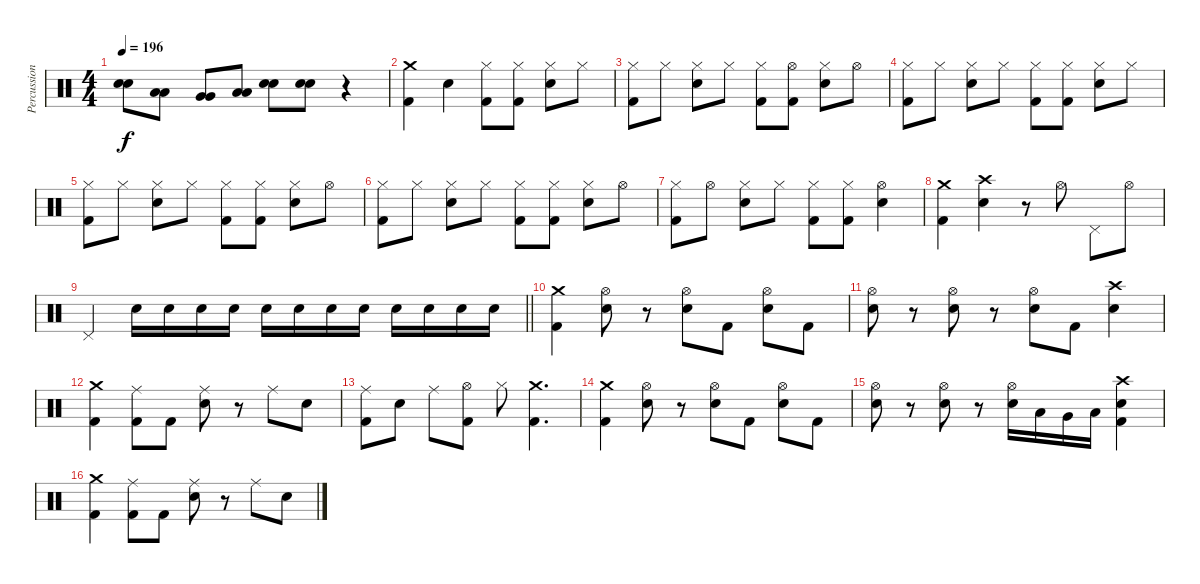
\track ("Percussion" "Percussion") {instrument percussion}
\staff {score}
\articulation defaults
\ts (4 4)
\tempo 196
\clef neutral
\ks c
("Electric Snare (hit)" "Electric Snare (hit)").8{dy f} ("Low Tom (hit)" "Low Tom (hit)").8 ("Very Low Tom (hit)" "Very Low Tom (hit)").8 ("Low Floor Tom (hit)" "Low Floor Tom (hit)").8 ("Electric Snare (hit)" "Electric Snare (hit)").8 ("Electric Snare (hit)" "Electric Snare (hit)").8 r.4 |
("Crash medium (hit)" "Kick (hit) 2").4 "Electric Snare (hit)".4 ("Hi-Hat (closed)" "Kick (hit) 2").8 ("Hi-Hat (closed)" "Kick (hit) 2").8 ("Hi-Hat (closed)" "Electric Snare (hit)").8 "Hi-Hat (closed)".8 |
("Hi-Hat (closed)" "Kick (hit) 2").8 "Hi-Hat (closed)".8 ("Hi-Hat (closed)" "Electric Snare (hit)").8 "Hi-Hat (closed)".8 ("Hi-Hat (closed)" "Kick (hit) 2").8 ("Hi-Hat (open)" "Kick (hit) 2").8 ("Hi-Hat (closed)" "Electric Snare (hit)").8 "Hi-Hat (open)".8 |
("Hi-Hat (closed)" "Kick (hit) 2").8 "Hi-Hat (closed)".8 ("Hi-Hat (closed)" "Electric Snare (hit)").8 "Hi-Hat (closed)".8 ("Hi-Hat (closed)" "Kick (hit) 2").8 ("Hi-Hat (closed)" "Kick (hit) 2").8 ("Hi-Hat (closed)" "Electric Snare (hit)").8 "Hi-Hat (closed)".8 |
("Hi-Hat (closed)" "Kick (hit) 2").8 "Hi-Hat (closed)".8 ("Hi-Hat (closed)" "Electric Snare (hit)").8 "Hi-Hat (closed)".8 ("Hi-Hat (closed)" "Kick (hit) 2").8 ("Hi-Hat (closed)" "Kick (hit) 2").8 ("Hi-Hat (closed)" "Electric Snare (hit)").8 "Hi-Hat (open)".8 |
("Hi-Hat (closed)" "Kick (hit) 2").8 "Hi-Hat (closed)".8 ("Hi-Hat (closed)" "Electric Snare (hit)").8 "Hi-Hat (closed)".8 ("Hi-Hat (closed)" "Kick (hit) 2").8 ("Hi-Hat (closed)" "Kick (hit) 2").8 ("Hi-Hat (closed)" "Electric Snare (hit)").8 "Hi-Hat (open)".8 |
("Hi-Hat (closed)" "Kick (hit) 2").8 "Hi-Hat (open)".8 ("Hi-Hat (closed)" "Electric Snare (hit)").8 "Hi-Hat (closed)".8 ("Hi-Hat (closed)" "Kick (hit) 2").8 ("Hi-Hat (closed)" "Kick (hit) 2").8 ("Hi-Hat (open)" "Electric Snare (hit)").4 |
("Crash medium (hit)" "Kick (hit) 2").4 ("Crash high (hit)" "Electric Snare (hit)").4 r.8 "Hi-Hat (open)".8 "Pedal Hi-Hat (hit)".8 "Hi-Hat (open)".8 |
\barLineRight lightlight "Pedal Hi-Hat (hit)".4 "Electric Snare (hit)".16 "Electric Snare (hit)".16 "Electric Snare (hit)".16 "Electric Snare (hit)".16 "Electric Snare (hit)".16 "Electric Snare (hit)".16 "Electric Snare (hit)".16 "Electric Snare (hit)".16 "Electric Snare (hit)".16 "Electric Snare (hit)".16 "Electric Snare (hit)".16 "Electric Snare (hit)".16
|
("Crash medium (hit)" "Kick (hit) 2").4 ("Hi-Hat (open)" "Electric Snare (hit)").8 r.8 ("Hi-Hat (open)" "Electric Snare (hit)").8 "Kick (hit) 2".8 ("Hi-Hat (open)" "Electric Snare (hit)").8 "Kick (hit) 2".8 |
("Hi-Hat (open)" "Electric Snare (hit)").8 r.8 ("Hi-Hat (open)" "Electric Snare (hit)").8 r.8 ("Hi-Hat (open)" "Electric Snare (hit)").8 "Kick (hit) 2".8 ("Crash high (hit)" "Electric Snare (hit)").4 |
("Crash medium (hit)" "Kick (hit) 2").4 ("Ride (middle)" "Kick (hit) 2").8 "Kick (hit) 2".8 ("Ride (middle)" "Electric Snare (hit)").8 r.8 "Ride (middle)".8 "Electric Snare (hit)".8 |
("Ride (middle)" "Kick (hit) 2").8 "Electric Snare (hit)".8 "Ride (middle)".8 ("Hi-Hat (open)" "Kick (hit) 2").8 "Hi-Hat (closed)".8 ("Crash medium (hit)" "Kick (hit) 2").4{d} |
("Crash medium (hit)" "Kick (hit) 2").4 ("Hi-Hat (open)" "Electric Snare (hit)").8 r.8 ("Hi-Hat (open)" "Electric Snare (hit)").8 "Kick (hit) 2".8 ("Hi-Hat (open)" "Electric Snare (hit)").8 "Kick (hit) 2".8 |
("Hi-Hat (open)" "Electric Snare (hit)").8 r.8 ("Hi-Hat (open)" "Electric Snare (hit)").8 r.8 ("Hi-Hat (open)" "Electric Snare (hit)").16 "Low Tom (hit)".16 "Very Low Tom (hit)".16 "Low Floor Tom (hit)".16 ("Crash high (hit)" "Electric Snare (hit)" "Kick (hit) 2").4 |
("Crash medium (hit)" "Kick (hit) 2").4 ("Ride (middle)" "Kick (hit) 2").8 "Kick (hit) 2".8 ("Ride (middle)" "Electric Snare (hit)").8 r.8 "Ride (middle)".8 "Electric Snare (hit)".8
